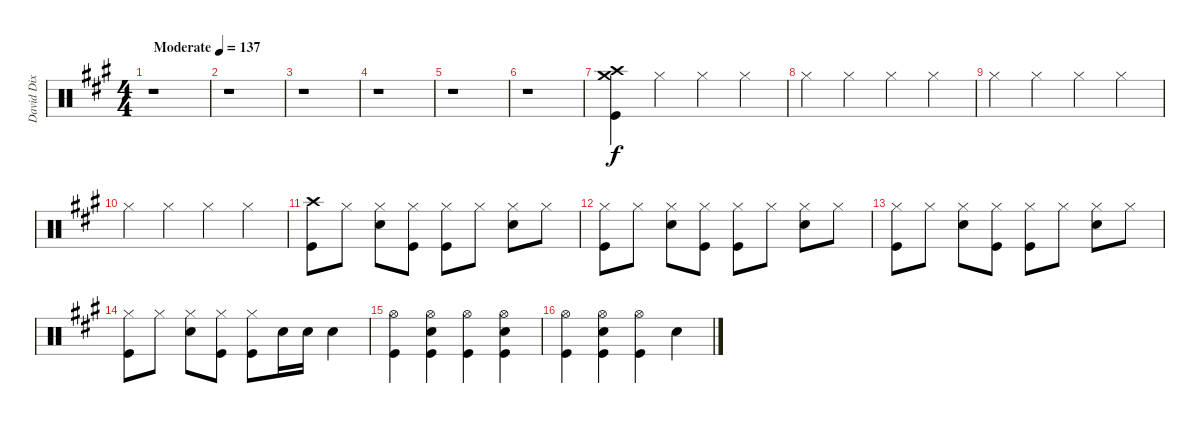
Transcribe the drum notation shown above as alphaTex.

\track ("David Dix Drums" "David Dix ") {instrument percussion}
\staff {score}
\articulation defaults
\ts (4 4)
\tempo (137 "Moderate")
\clef neutral
\ks a
r.1{dy f} |
r.1 |
r.1 |
r.1 |
r.1 |
r.1 |
("Crash high (hit)" "Crash medium (hit)" "Kick (hit)").4 "Hi-Hat (closed)".4 "Hi-Hat (closed)".4 "Hi-Hat (closed)".4 |
"Hi-Hat (closed)".4 "Hi-Hat (closed)".4 "Hi-Hat (closed)".4 "Hi-Hat (closed)".4 |
"Hi-Hat (closed)".4 "Hi-Hat (closed)".4 "Hi-Hat (closed)".4 "Hi-Hat (closed)".4 |
"Hi-Hat (closed)".4 "Hi-Hat (closed)".4 "Hi-Hat (closed)".4 "Hi-Hat (closed)".4 |
("Crash high (hit)" "Kick (hit)").8 "Hi-Hat (closed)".8 ("Hi-Hat (closed)" "Snare (hit) 2").8 ("Hi-Hat (closed)" "Kick (hit)").8 ("Hi-Hat (closed)" "Kick (hit)").8 "Hi-Hat (closed)".8 ("Hi-Hat (closed)" "Snare (hit) 2").8 "Hi-Hat (closed)".8 |
("Hi-Hat (closed)" "Kick (hit)").8 "Hi-Hat (closed)".8 ("Hi-Hat (closed)" "Snare (hit) 2").8 ("Hi-Hat (closed)" "Kick (hit)").8 ("Hi-Hat (closed)" "Kick (hit)").8 "Hi-Hat (closed)".8 ("Hi-Hat (closed)" "Snare (hit) 2").8 "Hi-Hat (closed)".8 |
("Hi-Hat (closed)" "Kick (hit)").8 "Hi-Hat (closed)".8 ("Hi-Hat (closed)" "Snare (hit) 2").8 ("Hi-Hat (closed)" "Kick (hit)").8 ("Hi-Hat (closed)" "Kick (hit)").8 "Hi-Hat (closed)".8 ("Hi-Hat (closed)" "Snare (hit) 2").8 "Hi-Hat (closed)".8 |
("Hi-Hat (closed)" "Kick (hit)").8 "Hi-Hat (closed)".8 ("Hi-Hat (closed)" "Snare (hit) 2").8 ("Hi-Hat (closed)" "Kick (hit)").8 ("Hi-Hat (closed)" "Kick (hit)").8 "Snare (hit) 2".16 "Snare (hit) 2".16 "Snare (hit) 2".4 |
("Hi-Hat (open)" "Kick (hit)").4 ("Hi-Hat (open)" "Snare (hit) 2" "Kick (hit)").4 ("Hi-Hat (open)" "Kick (hit)").4 ("Hi-Hat (open)" "Snare (hit) 2" "Kick (hit)").4 |
("Hi-Hat (open)" "Kick (hit)").4 ("Hi-Hat (open)" "Snare (hit) 2" "Kick (hit)").4 ("Hi-Hat (open)" "Kick (hit)").4 "Snare (hit) 2".4
